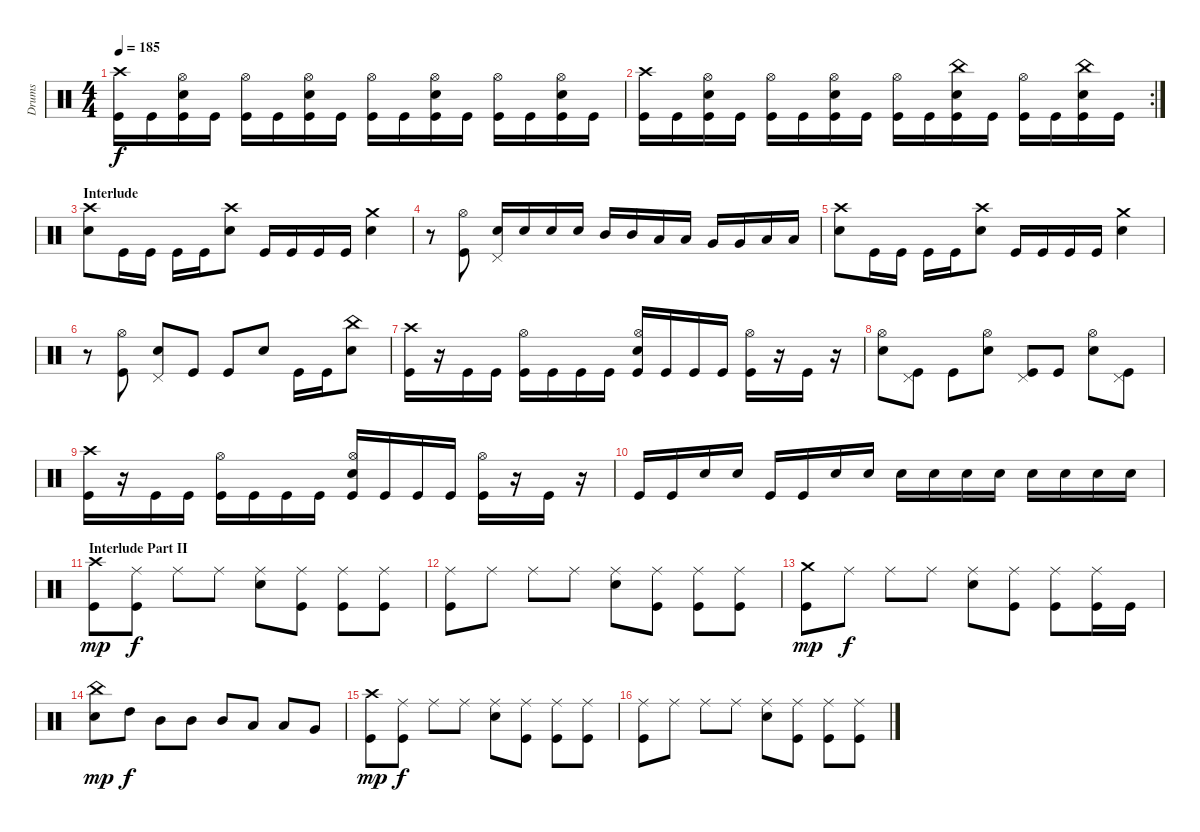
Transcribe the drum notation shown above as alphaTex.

\track ("Drums" "Drums") {instrument percussion}
\staff {score}
\articulation defaults
\ts (4 4)
\tempo 185
\clef neutral
\ks c
("Crash high (hit)" "Kick (hit)").16{dy f} "Kick (hit)".16 ("Hi-Hat (open)" "Electric Snare (hit)" "Kick (hit)").16 "Kick (hit)".16 ("Hi-Hat (open)" "Kick (hit)").16 "Kick (hit)".16 ("Hi-Hat (open)" "Electric Snare (hit)" "Kick (hit)").16 "Kick (hit)".16 ("Hi-Hat (open)" "Kick (hit)").16 "Kick (hit)".16 ("Hi-Hat (open)" "Electric Snare (hit)" "Kick (hit)").16 "Kick (hit)".16 ("Hi-Hat (open)" "Kick (hit)").16 "Kick (hit)".16 ("Hi-Hat (open)" "Electric Snare (hit)" "Kick (hit)").16 "Kick (hit)".16 |
\rc 2
("Crash high (hit)" "Kick (hit)").16 "Kick (hit)".16 ("Hi-Hat (open)" "Electric Snare (hit)" "Kick (hit)").16 "Kick (hit)".16 ("Hi-Hat (open)" "Kick (hit)").16 "Kick (hit)".16 ("Hi-Hat (open)" "Electric Snare (hit)" "Kick (hit)").16 "Kick (hit)".16 ("Hi-Hat (open)" "Kick (hit)").16 "Kick (hit)".16 ("China (hit)" "Electric Snare (hit)" "Kick (hit)").16 "Kick (hit)".16 ("Hi-Hat (open)" "Kick (hit)").16 "Kick (hit)".16 ("China (hit)" "Electric Snare (hit)" "Kick (hit)").16 "Kick (hit)".16 |
\section ("" "Interlude")
("Crash high (hit)" "Electric Snare (hit)").8 "Kick (hit)".16 "Kick (hit)".16 "Kick (hit)".16 "Kick (hit)".16 ("Crash high (hit)" "Electric Snare (hit)").8 "Kick (hit)".16 "Kick (hit)".16 "Kick (hit)".16 "Kick (hit)".16 ("Crash medium (hit)" "Electric Snare (hit)").4 |
r.8 ("Hi-Hat (open)" "Kick (hit)").8 ("Pedal Hi-Hat (hit)" "Electric Snare (hit)").16 "Electric Snare (hit)".16 "Electric Snare (hit)".16 "Electric Snare (hit)".16 "Mid Tom (hit)".16 "Mid Tom (hit)".16 "Low Tom (hit)".16 "Low Tom (hit)".16 "Very Low Tom (hit)".16 "Very Low Tom (hit)".16 "Low Floor Tom (hit)".16 "Low Floor Tom (hit)".16 |
("Crash high (hit)" "Electric Snare (hit)").8 "Kick (hit)".16 "Kick (hit)".16 "Kick (hit)".16 "Kick (hit)".16 ("Crash high (hit)" "Electric Snare (hit)").8 "Kick (hit)".16 "Kick (hit)".16 "Kick (hit)".16 "Kick (hit)".16 ("Crash medium (hit)" "Electric Snare (hit)").4 |
r.8 ("Hi-Hat (open)" "Kick (hit)").8 ("Pedal Hi-Hat (hit)" "Electric Snare (hit)").8 "Kick (hit)".8 "Kick (hit)".8 "Electric Snare (hit)".8 "Kick (hit)".16 "Kick (hit)".16 ("China (hit)" "Electric Snare (hit)").8 |
("Crash high (hit)" "Kick (hit)").16 r.16 "Kick (hit)".16 "Kick (hit)".16 ("Hi-Hat (open)" "Kick (hit)").16 "Kick (hit)".16 "Kick (hit)".16 "Kick (hit)".16 ("Hi-Hat (open)" "Electric Snare (hit)" "Kick (hit)").16 "Kick (hit)".16 "Kick (hit)".16 "Kick (hit)".16 ("Hi-Hat (open)" "Kick (hit)").16 r.16 "Kick (hit)".16 r.16 |
("Hi-Hat (open)" "Electric Snare (hit)").8 ("Pedal Hi-Hat (hit)" "Kick (hit)").8 "Kick (hit)".8 ("Hi-Hat (open)" "Electric Snare (hit)").8 ("Pedal Hi-Hat (hit)" "Kick (hit)").8 "Kick (hit)".8 ("Hi-Hat (open)" "Electric Snare (hit)").8 ("Pedal Hi-Hat (hit)" "Kick (hit)").8 |
("Crash high (hit)" "Kick (hit)").16 r.16 "Kick (hit)".16 "Kick (hit)".16 ("Hi-Hat (open)" "Kick (hit)").16 "Kick (hit)".16 "Kick (hit)".16 "Kick (hit)".16 ("Hi-Hat (open)" "Electric Snare (hit)" "Kick (hit)").16 "Kick (hit)".16 "Kick (hit)".16 "Kick (hit)".16 ("Hi-Hat (open)" "Kick (hit)").16 r.16 "Kick (hit)".16 r.16 |
"Kick (hit)".16 "Kick (hit)".16 "Electric Snare (hit)".16 "Electric Snare (hit)".16 "Kick (hit)".16 "Kick (hit)".16 "Electric Snare (hit)".16 "Electric Snare (hit)".16 "Electric Snare (hit)".16 "Electric Snare (hit)".16 "Electric Snare (hit)".16 "Electric Snare (hit)".16 "Electric Snare (hit)".16 "Electric Snare (hit)".16 "Electric Snare (hit)".16 "Electric Snare (hit)".16 |
\section ("" "Interlude Part II")
("Crash high (hit)" "Kick (hit)").8{dy mp} ("Ride (middle)" "Kick (hit)").8{dy f} "Ride (middle)".8 "Ride (middle)".8 ("Ride (middle)" "Electric Snare (hit)").8 ("Ride (middle)" "Kick (hit)").8 ("Ride (middle)" "Kick (hit)").8 ("Ride (middle)" "Kick (hit)").8 |
("Ride (middle)" "Kick (hit)").8 "Ride (middle)".8 "Ride (middle)".8 "Ride (middle)".8 ("Ride (middle)" "Electric Snare (hit)").8 ("Ride (middle)" "Kick (hit)").8 ("Ride (middle)" "Kick (hit)").8 ("Ride (middle)" "Kick (hit)").8 |
("Crash medium (hit)" "Kick (hit)").8{dy mp} "Ride (middle)".8{dy f} "Ride (middle)".8 "Ride (middle)".8 ("Ride (middle)" "Electric Snare (hit)").8 ("Ride (middle)" "Kick (hit)").8 ("Ride (middle)" "Kick (hit)").8 ("Ride (middle)" "Kick (hit)").16 "Kick (hit)".16 |
("China (hit)" "Electric Snare (hit)").8{dy mp} "High Tom (hit)".8{dy f} "Mid Tom (hit)".8 "Mid Tom (hit)".8 "Mid Tom (hit)".8 "Low Tom (hit)".8 "Low Tom (hit)".8 "Very Low Tom (hit)".8 |
("Crash high (hit)" "Kick (hit)").8{dy mp} ("Ride (middle)" "Kick (hit)").8{dy f} "Ride (middle)".8 "Ride (middle)".8 ("Ride (middle)" "Electric Snare (hit)").8 ("Ride (middle)" "Kick (hit)").8 ("Ride (middle)" "Kick (hit)").8 ("Ride (middle)" "Kick (hit)").8 |
("Ride (middle)" "Kick (hit)").8 "Ride (middle)".8 "Ride (middle)".8 "Ride (middle)".8 ("Ride (middle)" "Electric Snare (hit)").8 ("Ride (middle)" "Kick (hit)").8 ("Ride (middle)" "Kick (hit)").8 ("Ride (middle)" "Kick (hit)").8
